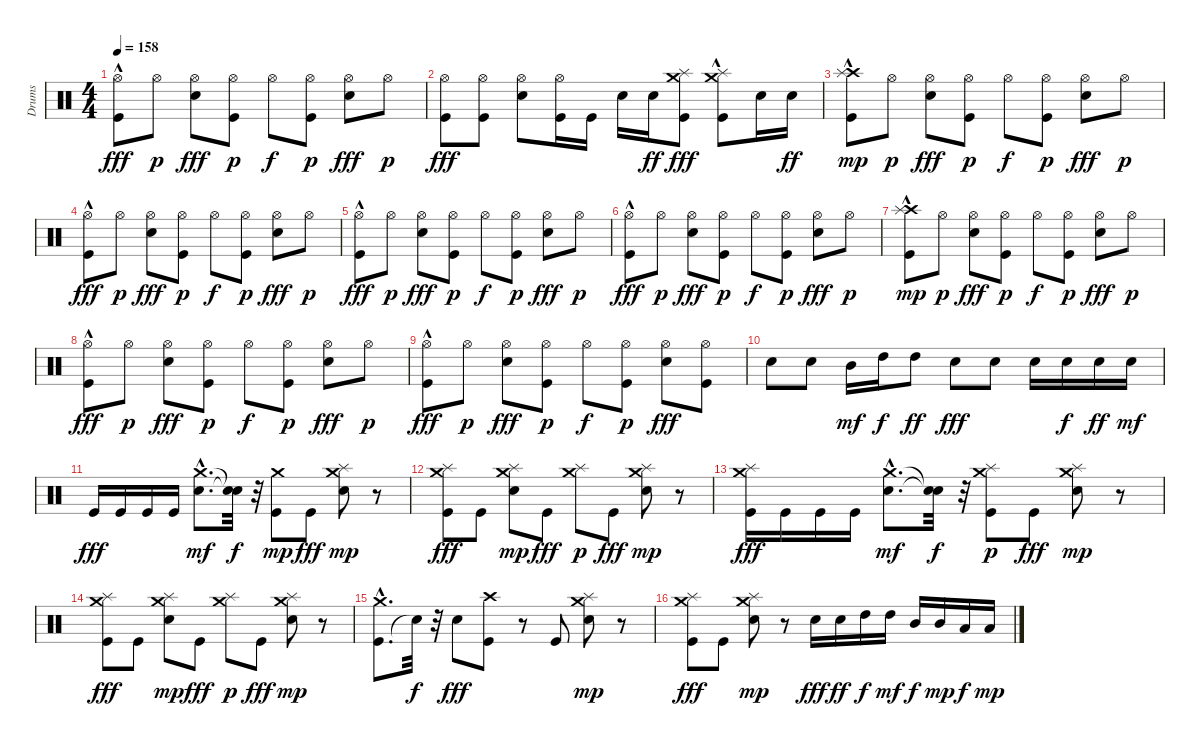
\track ("Drums" "Drums") {instrument percussion}
\staff {score}
\articulation defaults
\ts (4 4)
\tempo 158
\clef neutral
\ks c
("Kick (hit)"{hac} "Hi-Hat (open)").8{dy fff} "Hi-Hat (open)".8{dy p} ("Electric Snare (hit)" "Hi-Hat (open)").8{dy fff} ("Kick (hit)" "Hi-Hat (open)").8{dy p} "Hi-Hat (open)".8{dy f} ("Kick (hit)" "Hi-Hat (open)").8{dy p} ("Electric Snare (hit)" "Hi-Hat (open)").8{dy fff} "Hi-Hat (open)".8{dy p} |
("Hi-Hat (open)" "Kick (hit)").8{dy fff} ("Hi-Hat (open)" "Kick (hit)").8 ("Electric Snare (hit)" "Hi-Hat (open)").8 ("Hi-Hat (open)" "Kick (hit)").16 "Kick (hit)".16 "Electric Snare (hit)".16 "Electric Snare (hit)".16{dy ff} ("Crash medium (hit)" "Splash (hit)" "Kick (hit)").8{dy fff} ("Crash medium (hit)" "Splash (hit)" "Kick (hit)"{hac}).8 "Electric Snare (hit)".16 "Electric Snare (hit)".16{dy ff} |
("Kick (hit)"{hac} "Crash high (hit)" "Splash (hit)").8{dy mp} "Hi-Hat (open)".8{dy p} ("Electric Snare (hit)" "Hi-Hat (open)").8{dy fff} ("Kick (hit)" "Hi-Hat (open)").8{dy p} "Hi-Hat (open)".8{dy f} ("Kick (hit)" "Hi-Hat (open)").8{dy p} ("Electric Snare (hit)" "Hi-Hat (open)").8{dy fff} "Hi-Hat (open)".8{dy p} |
("Kick (hit)"{hac} "Hi-Hat (open)").8{dy fff} "Hi-Hat (open)".8{dy p} ("Electric Snare (hit)" "Hi-Hat (open)").8{dy fff} ("Kick (hit)" "Hi-Hat (open)").8{dy p} "Hi-Hat (open)".8{dy f} ("Kick (hit)" "Hi-Hat (open)").8{dy p} ("Electric Snare (hit)" "Hi-Hat (open)").8{dy fff} "Hi-Hat (open)".8{dy p} |
("Kick (hit)"{hac} "Hi-Hat (open)").8{dy fff} "Hi-Hat (open)".8{dy p} ("Electric Snare (hit)" "Hi-Hat (open)").8{dy fff} ("Kick (hit)" "Hi-Hat (open)").8{dy p} "Hi-Hat (open)".8{dy f} ("Kick (hit)" "Hi-Hat (open)").8{dy p} ("Electric Snare (hit)" "Hi-Hat (open)").8{dy fff} "Hi-Hat (open)".8{dy p} |
("Kick (hit)"{hac} "Hi-Hat (open)").8{dy fff} "Hi-Hat (open)".8{dy p} ("Electric Snare (hit)" "Hi-Hat (open)").8{dy fff} ("Kick (hit)" "Hi-Hat (open)").8{dy p} "Hi-Hat (open)".8{dy f} ("Kick (hit)" "Hi-Hat (open)").8{dy p} ("Electric Snare (hit)" "Hi-Hat (open)").8{dy fff} "Hi-Hat (open)".8{dy p} |
("Kick (hit)"{hac} "Crash high (hit)" "Splash (hit)").8{dy mp} "Hi-Hat (open)".8{dy p} ("Electric Snare (hit)" "Hi-Hat (open)").8{dy fff} ("Kick (hit)" "Hi-Hat (open)").8{dy p} "Hi-Hat (open)".8{dy f} ("Kick (hit)" "Hi-Hat (open)").8{dy p} ("Electric Snare (hit)" "Hi-Hat (open)").8{dy fff} "Hi-Hat (open)".8{dy p} |
("Kick (hit)"{hac} "Hi-Hat (open)").8{dy fff} "Hi-Hat (open)".8{dy p} ("Electric Snare (hit)" "Hi-Hat (open)").8{dy fff} ("Kick (hit)" "Hi-Hat (open)").8{dy p} "Hi-Hat (open)".8{dy f} ("Kick (hit)" "Hi-Hat (open)").8{dy p} ("Electric Snare (hit)" "Hi-Hat (open)").8{dy fff} "Hi-Hat (open)".8{dy p} |
("Kick (hit)"{hac} "Hi-Hat (open)").8{dy fff} "Hi-Hat (open)".8{dy p} ("Electric Snare (hit)" "Hi-Hat (open)").8{dy fff} ("Kick (hit)" "Hi-Hat (open)").8{dy p} "Hi-Hat (open)".8{dy f} ("Kick (hit)" "Hi-Hat (open)").8{dy p} ("Electric Snare (hit)" "Hi-Hat (open)").8{dy fff} ("Hi-Hat (open)" "Kick (hit)").8 |
"Electric Snare (hit)".8 "Electric Snare (hit)".8 "Mid Tom (hit)".16{dy mf} "High Tom (hit)".16{dy f} "High Tom (hit)".8{dy ff} "Electric Snare (hit)".8{dy fff} "Electric Snare (hit)".8 "Electric Snare (hit)".16 "Electric Snare (hit)".16{dy f} "Electric Snare (hit)".16{dy ff} "Electric Snare (hit)".16{dy mf} |
"Kick (hit)".16{dy fff} "Kick (hit)".16 "Kick (hit)".16 "Kick (hit)".16 ("Electric Snare (hit)"{hac} "Crash medium (hit)"{hac}).8{d dy mf} ("Snare (hit)"{t} "Snare (hit)"{t}).32{dy f} r.32 ("Kick (hit)" "Crash medium (hit)").8{dy mp} "Kick (hit)".8{dy fff} ("Electric Snare (hit)" "Crash medium (hit)" "Splash (hit)").8{dy mp} r.8 |
("Splash (hit)" "Crash medium (hit)" "Kick (hit)").8{dy fff} "Kick (hit)".8 ("Electric Snare (hit)" "Crash medium (hit)" "Splash (hit)").8{dy mp} "Kick (hit)".8{dy fff} ("Splash (hit)" "Crash medium (hit)").8{dy p} "Kick (hit)".8{dy fff} ("Electric Snare (hit)" "Crash medium (hit)" "Splash (hit)").8{dy mp} r.8 |
("Splash (hit)" "Crash medium (hit)" "Kick (hit)").16{dy fff} "Kick (hit)".16 "Kick (hit)".16 "Kick (hit)".16 ("Electric Snare (hit)"{hac} "Crash medium (hit)"{hac}).8{d dy mf} ("Snare (hit)"{t} "Snare (hit)"{t}).32{dy f} r.32 ("Kick (hit)" "Splash (hit)" "Crash medium (hit)").8{dy p} "Kick (hit)".8{dy fff} ("Electric Snare (hit)" "Crash medium (hit)" "Splash (hit)").8{dy mp} r.8 |
("Splash (hit)" "Crash medium (hit)" "Kick (hit)").8{dy fff} "Kick (hit)".8 ("Electric Snare (hit)" "Crash medium (hit)" "Splash (hit)").8{dy mp} "Kick (hit)".8{dy fff} ("Splash (hit)" "Crash medium (hit)").8{dy p} "Kick (hit)".8{dy fff} ("Electric Snare (hit)" "Crash medium (hit)" "Splash (hit)").8{dy mp} r.8 |
("Kick (hit)"{hac} "Crash medium (hit)").8{d} "Snare (hit)"{t}.32{dy f} r.32 "Electric Snare (hit)".8{dy fff} ("Crash high (hit)" "Kick (hit)").8 r.8 "Kick (hit)".8 ("Electric Snare (hit)" "Crash medium (hit)" "Splash (hit)").8{dy mp} r.8 |
("Splash (hit)" "Crash medium (hit)" "Kick (hit)").8{dy fff} "Kick (hit)".8 ("Electric Snare (hit)" "Crash medium (hit)" "Splash (hit)").8{dy mp} r.8 "Electric Snare (hit)".16{dy fff} "Electric Snare (hit)".16{dy ff} "High Tom (hit)".16{dy f} "High Tom (hit)".16{dy mf} "Mid Tom (hit)".16{dy f} "Mid Tom (hit)".16{dy mp} "Low Tom (hit)".16{dy f} "Low Tom (hit)".16{dy mp}
